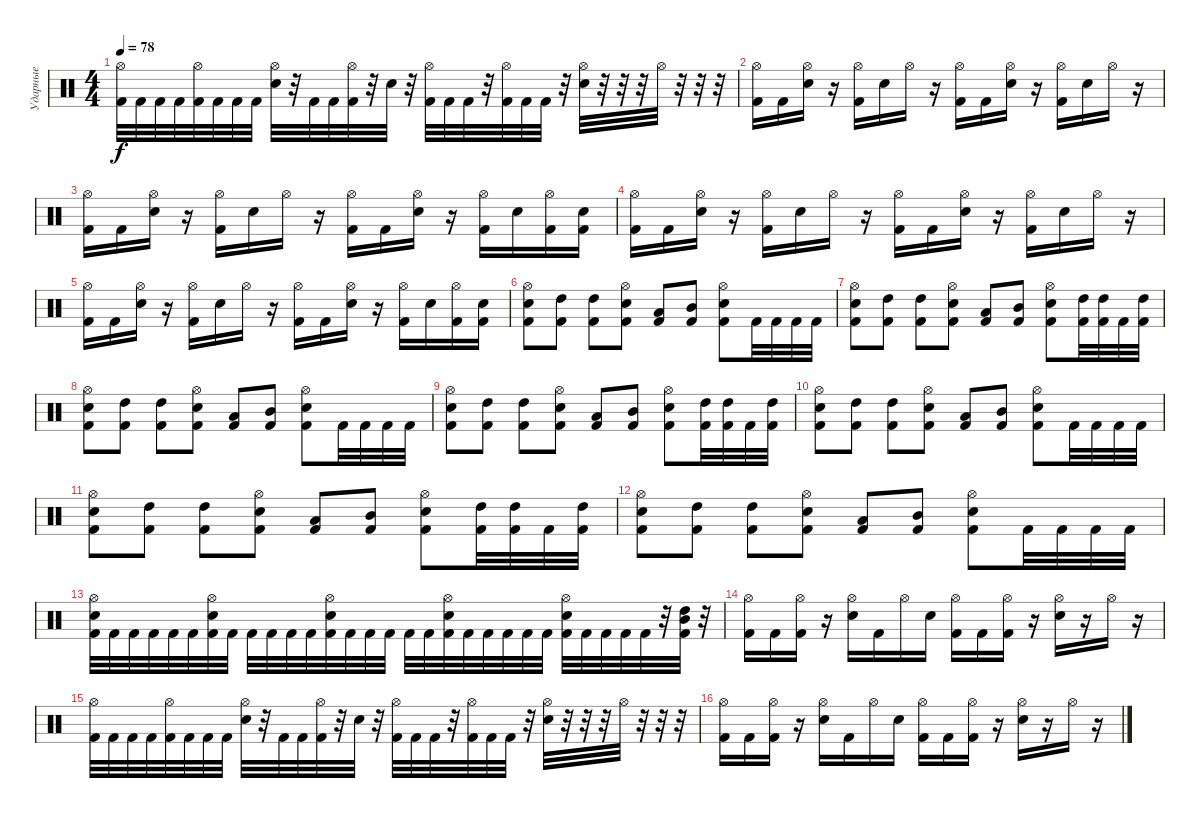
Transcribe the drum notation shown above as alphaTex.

\track ("Ударные" "Ударные") {instrument percussion}
\staff {score}
\articulation defaults
\ts (4 4)
\tempo 78
\clef neutral
\ks c
("Hi-Hat (open)" "Kick (hit) 2").32{dy f} "Kick (hit) 2".32 "Kick (hit) 2".32 "Kick (hit) 2".32 ("Hi-Hat (open)" "Kick (hit) 2").32 "Kick (hit) 2".32 "Kick (hit) 2".32 "Kick (hit) 2".32 ("Electric Snare (hit)" "Hi-Hat (open)").32 r.32 "Kick (hit) 2".32 "Kick (hit) 2".32 ("Hi-Hat (open)" "Kick (hit) 2").32 r.32 "Electric Snare (hit)".32 r.32 ("Hi-Hat (open)" "Kick (hit) 2").32 "Kick (hit) 2".32 "Kick (hit) 2".32 r.32 ("Hi-Hat (open)" "Kick (hit) 2").32 "Kick (hit) 2".32 "Kick (hit) 2".32 r.32 ("Electric Snare (hit)" "Hi-Hat (open)").32 r.32 r.32 r.32 "Hi-Hat (open)".32 r.32 r.32 r.32 |
("Hi-Hat (open)" "Kick (hit) 2").16 "Kick (hit) 2".16 ("Electric Snare (hit)" "Hi-Hat (open)").16 r.16 ("Hi-Hat (open)" "Kick (hit) 2").16 "Electric Snare (hit)".16 "Hi-Hat (open)".16 r.16 ("Hi-Hat (open)" "Kick (hit) 2").16 "Kick (hit) 2".16 ("Electric Snare (hit)" "Hi-Hat (open)").16 r.16 ("Hi-Hat (open)" "Kick (hit) 2").16 "Electric Snare (hit)".16 "Hi-Hat (open)".16 r.16 |
("Hi-Hat (open)" "Kick (hit) 2").16 "Kick (hit) 2".16 ("Electric Snare (hit)" "Hi-Hat (open)").16 r.16 ("Hi-Hat (open)" "Kick (hit) 2").16 "Electric Snare (hit)".16 "Hi-Hat (open)".16 r.16 ("Hi-Hat (open)" "Kick (hit) 2").16 "Kick (hit) 2".16 ("Electric Snare (hit)" "Hi-Hat (open)").16 r.16 ("Hi-Hat (open)" "Kick (hit) 2").16 "Electric Snare (hit)".16 ("Hi-Hat (open)" "Kick (hit) 2").16 ("Electric Snare (hit)" "Kick (hit) 2").16 |
("Hi-Hat (open)" "Kick (hit) 2").16 "Kick (hit) 2".16 ("Electric Snare (hit)" "Hi-Hat (open)").16 r.16 ("Hi-Hat (open)" "Kick (hit) 2").16 "Electric Snare (hit)".16 "Hi-Hat (open)".16 r.16 ("Hi-Hat (open)" "Kick (hit) 2").16 "Kick (hit) 2".16 ("Electric Snare (hit)" "Hi-Hat (open)").16 r.16 ("Hi-Hat (open)" "Kick (hit) 2").16 "Electric Snare (hit)".16 "Hi-Hat (open)".16 r.16 |
("Hi-Hat (open)" "Kick (hit) 2").16 "Kick (hit) 2".16 ("Electric Snare (hit)" "Hi-Hat (open)").16 r.16 ("Hi-Hat (open)" "Kick (hit) 2").16 "Electric Snare (hit)".16 "Hi-Hat (open)".16 r.16 ("Hi-Hat (open)" "Kick (hit) 2").16 "Kick (hit) 2".16 ("Electric Snare (hit)" "Hi-Hat (open)").16 r.16 ("Hi-Hat (open)" "Kick (hit) 2").16 "Electric Snare (hit)".16 ("Hi-Hat (open)" "Kick (hit) 2").16 ("Electric Snare (hit)" "Kick (hit) 2").16 |
("Electric Snare (hit)" "Hi-Hat (open)" "Kick (hit) 2").8 ("High Tom (hit)" "Kick (hit) 2").8 ("High Tom (hit)" "Kick (hit) 2").8 ("Electric Snare (hit)" "Hi-Hat (open)" "Kick (hit) 2").8 ("Low Tom (hit)" "Kick (hit) 2").8 ("Mid Tom (hit)" "Kick (hit) 2").8 ("Electric Snare (hit)" "Hi-Hat (open)" "Kick (hit) 2").8 "Kick (hit) 2".32 "Kick (hit) 2".32 "Kick (hit) 2".32 "Kick (hit) 2".32 |
("Electric Snare (hit)" "Hi-Hat (open)" "Kick (hit) 2").8 ("High Tom (hit)" "Kick (hit) 2").8 ("High Tom (hit)" "Kick (hit) 2").8 ("Electric Snare (hit)" "Hi-Hat (open)" "Kick (hit) 2").8 ("Low Tom (hit)" "Kick (hit) 2").8 ("Mid Tom (hit)" "Kick (hit) 2").8 ("Electric Snare (hit)" "Hi-Hat (open)" "Kick (hit) 2").8 ("High Tom (hit)" "Kick (hit) 2").32 ("High Tom (hit)" "Kick (hit) 2").32 "Kick (hit) 2".32 ("High Tom (hit)" "Kick (hit) 2").32 |
("Electric Snare (hit)" "Hi-Hat (open)" "Kick (hit) 2").8 ("High Tom (hit)" "Kick (hit) 2").8 ("High Tom (hit)" "Kick (hit) 2").8 ("Electric Snare (hit)" "Hi-Hat (open)" "Kick (hit) 2").8 ("Low Tom (hit)" "Kick (hit) 2").8 ("Mid Tom (hit)" "Kick (hit) 2").8 ("Electric Snare (hit)" "Hi-Hat (open)" "Kick (hit) 2").8 "Kick (hit) 2".32 "Kick (hit) 2".32 "Kick (hit) 2".32 "Kick (hit) 2".32 |
("Electric Snare (hit)" "Hi-Hat (open)" "Kick (hit) 2").8 ("High Tom (hit)" "Kick (hit) 2").8 ("High Tom (hit)" "Kick (hit) 2").8 ("Electric Snare (hit)" "Hi-Hat (open)" "Kick (hit) 2").8 ("Low Tom (hit)" "Kick (hit) 2").8 ("Mid Tom (hit)" "Kick (hit) 2").8 ("Electric Snare (hit)" "Hi-Hat (open)" "Kick (hit) 2").8 ("High Tom (hit)" "Kick (hit) 2").32 ("High Tom (hit)" "Kick (hit) 2").32 "Kick (hit) 2".32 ("High Tom (hit)" "Kick (hit) 2").32 |
("Electric Snare (hit)" "Hi-Hat (open)" "Kick (hit) 2").8 ("High Tom (hit)" "Kick (hit) 2").8 ("High Tom (hit)" "Kick (hit) 2").8 ("Electric Snare (hit)" "Hi-Hat (open)" "Kick (hit) 2").8 ("Low Tom (hit)" "Kick (hit) 2").8 ("Mid Tom (hit)" "Kick (hit) 2").8 ("Electric Snare (hit)" "Hi-Hat (open)" "Kick (hit) 2").8 "Kick (hit) 2".32 "Kick (hit) 2".32 "Kick (hit) 2".32 "Kick (hit) 2".32 |
("Electric Snare (hit)" "Hi-Hat (open)" "Kick (hit) 2").8 ("High Tom (hit)" "Kick (hit) 2").8 ("High Tom (hit)" "Kick (hit) 2").8 ("Electric Snare (hit)" "Hi-Hat (open)" "Kick (hit) 2").8 ("Low Tom (hit)" "Kick (hit) 2").8 ("Mid Tom (hit)" "Kick (hit) 2").8 ("Electric Snare (hit)" "Hi-Hat (open)" "Kick (hit) 2").8 ("High Tom (hit)" "Kick (hit) 2").32 ("High Tom (hit)" "Kick (hit) 2").32 "Kick (hit) 2".32 ("High Tom (hit)" "Kick (hit) 2").32 |
("Electric Snare (hit)" "Hi-Hat (open)" "Kick (hit) 2").8 ("High Tom (hit)" "Kick (hit) 2").8 ("High Tom (hit)" "Kick (hit) 2").8 ("Electric Snare (hit)" "Hi-Hat (open)" "Kick (hit) 2").8 ("Low Tom (hit)" "Kick (hit) 2").8 ("Mid Tom (hit)" "Kick (hit) 2").8 ("Electric Snare (hit)" "Hi-Hat (open)" "Kick (hit) 2").8 "Kick (hit) 2".32 "Kick (hit) 2".32 "Kick (hit) 2".32 "Kick (hit) 2".32 |
("Electric Snare (hit)" "Hi-Hat (open)" "Kick (hit) 2").32 "Kick (hit) 2".32 "Kick (hit) 2".32 "Kick (hit) 2".32 "Kick (hit) 2".32 "Kick (hit) 2".32 ("Electric Snare (hit)" "Hi-Hat (open)" "Kick (hit) 2").32 "Kick (hit) 2".32 "Kick (hit) 2".32 "Kick (hit) 2".32 "Kick (hit) 2".32 "Kick (hit) 2".32 ("Electric Snare (hit)" "Hi-Hat (open)" "Kick (hit) 2").32 "Kick (hit) 2".32 "Kick (hit) 2".32 "Kick (hit) 2".32 "Kick (hit) 2".32 "Kick (hit) 2".32 ("Electric Snare (hit)" "Hi-Hat (open)" "Kick (hit) 2").32 "Kick (hit) 2".32 "Kick (hit) 2".32 "Kick (hit) 2".32 "Kick (hit) 2".32 "Kick (hit) 2".32 ("Electric Snare (hit)" "Hi-Hat (open)" "Kick (hit) 2").32 "Kick (hit) 2".32 "Kick (hit) 2".32 "Kick (hit) 2".32 "Kick (hit) 2".32 r.32 ("High Tom (hit)" "Mid Tom (hit)" "Kick (hit) 2").32 r.32 |
("Hi-Hat (open)" "Kick (hit) 2").16 "Kick (hit) 2".16 ("Hi-Hat (open)" "Kick (hit) 2").16 r.16 ("Electric Snare (hit)" "Hi-Hat (open)").16 "Kick (hit) 2".16 "Hi-Hat (open)".16 "Electric Snare (hit)".16 ("Hi-Hat (open)" "Kick (hit) 2").16 "Kick (hit) 2".16 ("Hi-Hat (open)" "Kick (hit) 2").16 r.16 ("Electric Snare (hit)" "Hi-Hat (open)").16 r.16 "Hi-Hat (open)".16 r.16 |
("Hi-Hat (open)" "Kick (hit) 2").32 "Kick (hit) 2".32 "Kick (hit) 2".32 "Kick (hit) 2".32 ("Hi-Hat (open)" "Kick (hit) 2").32 "Kick (hit) 2".32 "Kick (hit) 2".32 "Kick (hit) 2".32 ("Electric Snare (hit)" "Hi-Hat (open)").32 r.32 "Kick (hit) 2".32 "Kick (hit) 2".32 ("Hi-Hat (open)" "Kick (hit) 2").32 r.32 "Electric Snare (hit)".32 r.32 ("Hi-Hat (open)" "Kick (hit) 2").32 "Kick (hit) 2".32 "Kick (hit) 2".32 r.32 ("Hi-Hat (open)" "Kick (hit) 2").32 "Kick (hit) 2".32 "Kick (hit) 2".32 r.32 ("Electric Snare (hit)" "Hi-Hat (open)").32 r.32 r.32 r.32 "Hi-Hat (open)".32 r.32 r.32 r.32 |
("Hi-Hat (open)" "Kick (hit) 2").16 "Kick (hit) 2".16 ("Hi-Hat (open)" "Kick (hit) 2").16 r.16 ("Electric Snare (hit)" "Hi-Hat (open)").16 "Kick (hit) 2".16 "Hi-Hat (open)".16 "Electric Snare (hit)".16 ("Hi-Hat (open)" "Kick (hit) 2").16 "Kick (hit) 2".16 ("Hi-Hat (open)" "Kick (hit) 2").16 r.16 ("Electric Snare (hit)" "Hi-Hat (open)").16 r.16 "Hi-Hat (open)".16 r.16
